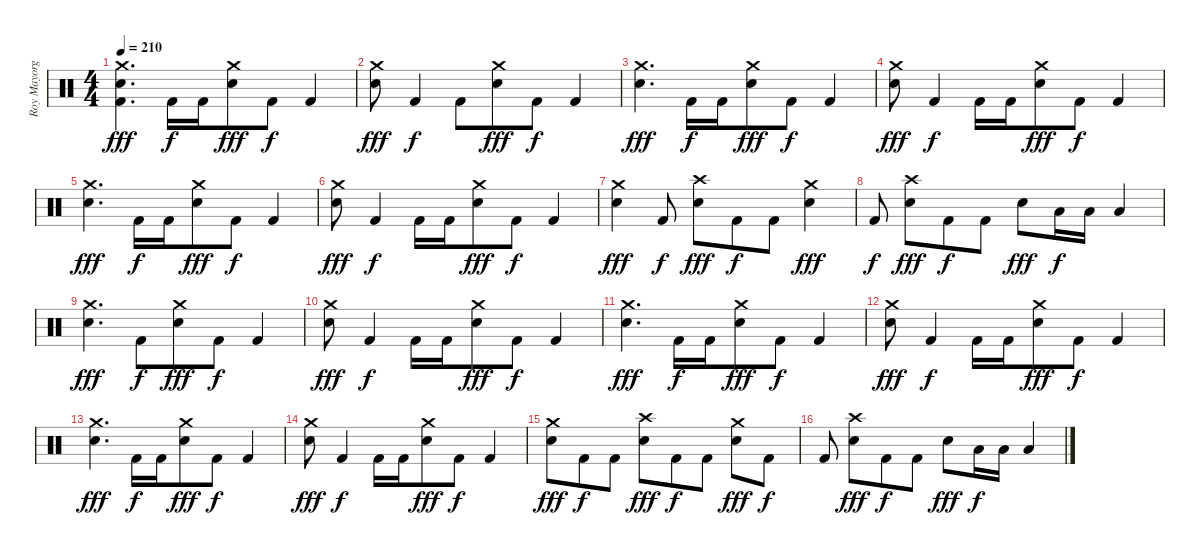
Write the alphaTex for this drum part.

\track ("Roy Mayorga" "Roy Mayorg") {instrument percussion}
\staff {score}
\articulation defaults
\ts (4 4)
\tempo 210
\clef neutral
\ks c
("Crash medium (hit)" "Electric Snare (hit)" "Kick (hit) 2").4{d dy fff} "Kick (hit) 2".16{dy f} "Kick (hit) 2".16{beam merge} ("Crash medium (hit)" "Electric Snare (hit)").8{dy fff} "Kick (hit) 2".8{dy f} "Kick (hit) 2".4 |
("Crash medium (hit)" "Electric Snare (hit)").8{dy fff} "Kick (hit) 2".4{dy f} "Kick (hit) 2".8{beam merge} ("Crash medium (hit)" "Electric Snare (hit)").8{dy fff} "Kick (hit) 2".8{dy f} "Kick (hit) 2".4 |
("Crash medium (hit)" "Electric Snare (hit)").4{d dy fff} "Kick (hit) 2".16{dy f} "Kick (hit) 2".16{beam merge} ("Crash medium (hit)" "Electric Snare (hit)").8{dy fff} "Kick (hit) 2".8{dy f} "Kick (hit) 2".4 |
("Crash medium (hit)" "Electric Snare (hit)").8{dy fff} "Kick (hit) 2".4{dy f} "Kick (hit) 2".16 "Kick (hit) 2".16{beam merge} ("Crash medium (hit)" "Electric Snare (hit)").8{dy fff} "Kick (hit) 2".8{dy f} "Kick (hit) 2".4 |
("Crash medium (hit)" "Electric Snare (hit)").4{d dy fff} "Kick (hit) 2".16{dy f} "Kick (hit) 2".16{beam merge} ("Crash medium (hit)" "Electric Snare (hit)").8{dy fff} "Kick (hit) 2".8{dy f} "Kick (hit) 2".4 |
("Crash medium (hit)" "Electric Snare (hit)").8{dy fff} "Kick (hit) 2".4{dy f} "Kick (hit) 2".16 "Kick (hit) 2".16{beam merge} ("Crash medium (hit)" "Electric Snare (hit)").8{dy fff} "Kick (hit) 2".8{dy f} "Kick (hit) 2".4 |
("Crash medium (hit)" "Electric Snare (hit)").4{dy fff} "Kick (hit) 2".8{dy f beam split} ("Crash high (hit)" "Electric Snare (hit)").8{dy fff beam merge} "Kick (hit) 2".8{dy f} "Kick (hit) 2".8 ("Crash medium (hit)" "Electric Snare (hit)").4{dy fff} |
"Kick (hit) 2".8{dy f beam split} ("Crash high (hit)" "Electric Snare (hit)").8{dy fff beam merge} "Kick (hit) 2".8{dy f} "Kick (hit) 2".8 "Electric Snare (hit)".8{dy fff} "Low Tom (hit)".16{dy f} "Low Tom (hit)".16 "Low Tom (hit)".4 |
("Crash medium (hit)" "Electric Snare (hit)").4{d dy fff} "Kick (hit) 2".8{dy f beam merge} ("Crash medium (hit)" "Electric Snare (hit)").8{dy fff} "Kick (hit) 2".8{dy f} "Kick (hit) 2".4 |
("Crash medium (hit)" "Electric Snare (hit)").8{dy fff} "Kick (hit) 2".4{dy f} "Kick (hit) 2".16 "Kick (hit) 2".16{beam merge} ("Crash medium (hit)" "Electric Snare (hit)").8{dy fff} "Kick (hit) 2".8{dy f} "Kick (hit) 2".4 |
("Crash medium (hit)" "Electric Snare (hit)").4{d dy fff} "Kick (hit) 2".16{dy f} "Kick (hit) 2".16{beam merge} ("Crash medium (hit)" "Electric Snare (hit)").8{dy fff} "Kick (hit) 2".8{dy f} "Kick (hit) 2".4 |
("Crash medium (hit)" "Electric Snare (hit)").8{dy fff} "Kick (hit) 2".4{dy f} "Kick (hit) 2".16 "Kick (hit) 2".16{beam merge} ("Crash medium (hit)" "Electric Snare (hit)").8{dy fff} "Kick (hit) 2".8{dy f} "Kick (hit) 2".4 |
("Crash medium (hit)" "Electric Snare (hit)").4{d dy fff} "Kick (hit) 2".16{dy f} "Kick (hit) 2".16{beam merge} ("Crash medium (hit)" "Electric Snare (hit)").8{dy fff} "Kick (hit) 2".8{dy f} "Kick (hit) 2".4 |
("Crash medium (hit)" "Electric Snare (hit)").8{dy fff} "Kick (hit) 2".4{dy f} "Kick (hit) 2".16 "Kick (hit) 2".16{beam merge} ("Crash medium (hit)" "Electric Snare (hit)").8{dy fff} "Kick (hit) 2".8{dy f} "Kick (hit) 2".4 |
("Crash medium (hit)" "Electric Snare (hit)").8{dy fff} "Kick (hit) 2".8{dy f beam merge} "Kick (hit) 2".8{beam split} ("Crash high (hit)" "Electric Snare (hit)").8{dy fff beam merge} "Kick (hit) 2".8{dy f} "Kick (hit) 2".8{beam split} ("Crash medium (hit)" "Electric Snare (hit)").8{dy fff} "Kick (hit) 2".8{dy f} |
"Kick (hit) 2".8{beam split} ("Crash high (hit)" "Electric Snare (hit)").8{dy fff beam merge} "Kick (hit) 2".8{dy f} "Kick (hit) 2".8 "Electric Snare (hit)".8{dy fff} "Low Tom (hit)".16{dy f} "Low Tom (hit)".16 "Low Tom (hit)".4
